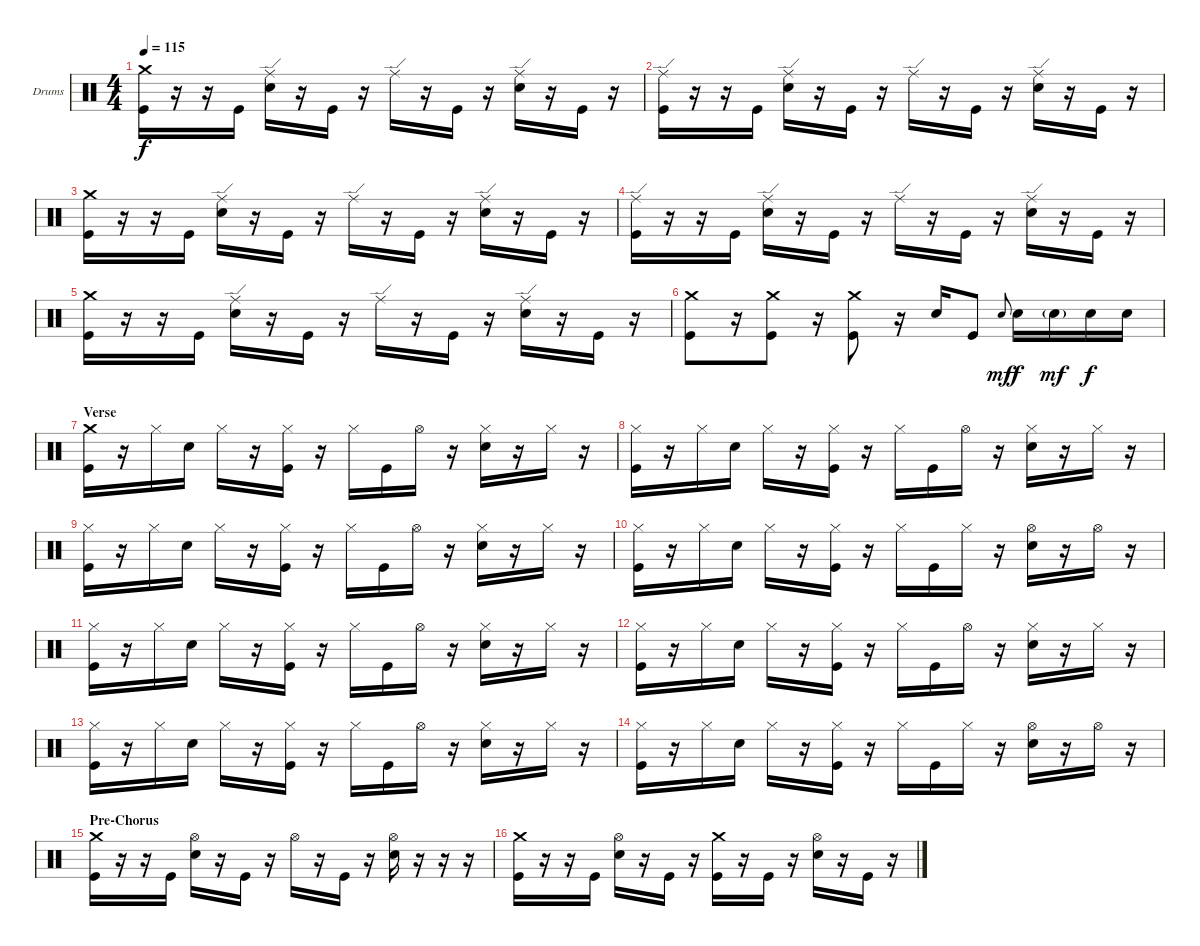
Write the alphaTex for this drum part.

\defaultSystemsLayout 4
\bracketExtendMode nobrackets
\firstSystemTrackNameOrientation horizontal
\otherSystemsTrackNameOrientation horizontal
\track ("Dave Krusen" "Drums") {instrument percussion}
\staff {score}
\articulation defaults
\ts (4 4)
\tempo 115
\clef neutral
\ks c
("Crash medium (hit)" "Kick (hit)").16{dy f} r.16 r.16 "Kick (hit)".16 ("Ride (edge)" "Snare (hit) 2").16 r.16 "Kick (hit)".16 r.16 "Ride (edge)".16 r.16 "Kick (hit)".16 r.16 ("Ride (edge)" "Snare (hit) 2").16 r.16 "Kick (hit)".16 r.16 |
("Ride (edge)" "Kick (hit)").16 r.16 r.16 "Kick (hit)".16 ("Ride (edge)" "Snare (hit) 2").16 r.16 "Kick (hit)".16 r.16 "Ride (edge)".16 r.16 "Kick (hit)".16 r.16 ("Ride (edge)" "Snare (hit) 2").16 r.16 "Kick (hit)".16 r.16 |
("Crash medium (hit)" "Kick (hit)").16 r.16 r.16 "Kick (hit)".16 ("Ride (edge)" "Snare (hit) 2").16 r.16 "Kick (hit)".16 r.16 "Ride (edge)".16 r.16 "Kick (hit)".16 r.16 ("Ride (edge)" "Snare (hit) 2").16 r.16 "Kick (hit)".16 r.16 |
("Ride (edge)" "Kick (hit)").16 r.16 r.16 "Kick (hit)".16 ("Ride (edge)" "Snare (hit) 2").16 r.16 "Kick (hit)".16 r.16 "Ride (edge)".16 r.16 "Kick (hit)".16 r.16 ("Ride (edge)" "Snare (hit) 2").16 r.16 "Kick (hit)".16 r.16 |
("Crash medium (hit)" "Kick (hit)").16 r.16 r.16 "Kick (hit)".16 ("Ride (edge)" "Snare (hit) 2").16 r.16 "Kick (hit)".16 r.16 "Ride (edge)".16 r.16 "Kick (hit)".16 r.16 ("Ride (edge)" "Snare (hit) 2").16 r.16 "Kick (hit)".16 r.16 |
("Crash medium (hit)" "Kick (hit)").8 r.16 ("Crash medium (hit)" "Kick (hit)").8 r.16 ("Crash medium (hit)" "Kick (hit)").8 r.16 "Snare (hit) 2".16 "Kick (hit)".8 "Snare (hit) 2".8{gr onbeat dy mf} "Snare (hit) 2".16{dy f} "Snare (hit) 2"{g}.16{dy mf} "Snare (hit) 2".16{dy f} "Snare (hit) 2".16 |
\section ("" "Verse")
("Crash medium (hit)" "Kick (hit)").16 r.16 "Hi-Hat (closed)".16 "Snare (hit) 2".16 "Hi-Hat (closed)".16 r.16 ("Hi-Hat (closed)" "Kick (hit)").16 r.16 "Hi-Hat (closed)".16 "Kick (hit)".16 "Hi-Hat (open)".16 r.16 ("Hi-Hat (closed)" "Snare (hit) 2").16 r.16 "Hi-Hat (closed)".16 r.16 |
("Hi-Hat (closed)" "Kick (hit)").16 r.16 "Hi-Hat (closed)".16 "Snare (hit) 2".16 "Hi-Hat (closed)".16 r.16 ("Hi-Hat (closed)" "Kick (hit)").16 r.16 "Hi-Hat (closed)".16 "Kick (hit)".16 "Hi-Hat (open)".16 r.16 ("Hi-Hat (closed)" "Snare (hit) 2").16 r.16 "Hi-Hat (closed)".16 r.16 |
("Hi-Hat (closed)" "Kick (hit)").16 r.16 "Hi-Hat (closed)".16 "Snare (hit) 2".16 "Hi-Hat (closed)".16 r.16 ("Hi-Hat (closed)" "Kick (hit)").16 r.16 "Hi-Hat (closed)".16 "Kick (hit)".16 "Hi-Hat (open)".16 r.16 ("Hi-Hat (closed)" "Snare (hit) 2").16 r.16 "Hi-Hat (closed)".16 r.16 |
("Hi-Hat (closed)" "Kick (hit)").16 r.16 "Hi-Hat (closed)".16 "Snare (hit) 2".16 "Hi-Hat (closed)".16 r.16 ("Hi-Hat (closed)" "Kick (hit)").16 r.16 "Hi-Hat (closed)".16 "Kick (hit)".16 "Hi-Hat (closed)".16 r.16 ("Hi-Hat (open)" "Snare (hit) 2").16 r.16 "Hi-Hat (open)".16 r.16 |
("Hi-Hat (closed)" "Kick (hit)").16 r.16 "Hi-Hat (closed)".16 "Snare (hit) 2".16 "Hi-Hat (closed)".16 r.16 ("Hi-Hat (closed)" "Kick (hit)").16 r.16 "Hi-Hat (closed)".16 "Kick (hit)".16 "Hi-Hat (open)".16 r.16 ("Hi-Hat (closed)" "Snare (hit) 2").16 r.16 "Hi-Hat (closed)".16 r.16 |
("Hi-Hat (closed)" "Kick (hit)").16 r.16 "Hi-Hat (closed)".16 "Snare (hit) 2".16 "Hi-Hat (closed)".16 r.16 ("Hi-Hat (closed)" "Kick (hit)").16 r.16 "Hi-Hat (closed)".16 "Kick (hit)".16 "Hi-Hat (open)".16 r.16 ("Hi-Hat (closed)" "Snare (hit) 2").16 r.16 "Hi-Hat (closed)".16 r.16 |
("Hi-Hat (closed)" "Kick (hit)").16 r.16 "Hi-Hat (closed)".16 "Snare (hit) 2".16 "Hi-Hat (closed)".16 r.16 ("Hi-Hat (closed)" "Kick (hit)").16 r.16 "Hi-Hat (closed)".16 "Kick (hit)".16 "Hi-Hat (open)".16 r.16 ("Hi-Hat (closed)" "Snare (hit) 2").16 r.16 "Hi-Hat (closed)".16 r.16 |
("Hi-Hat (closed)" "Kick (hit)").16 r.16 "Hi-Hat (closed)".16 "Snare (hit) 2".16 "Hi-Hat (closed)".16 r.16 ("Hi-Hat (closed)" "Kick (hit)").16 r.16 "Hi-Hat (closed)".16 "Kick (hit)".16 "Hi-Hat (closed)".16 r.16 ("Hi-Hat (open)" "Snare (hit) 2").16 r.16 "Hi-Hat (open)".16 r.16 |
\section ("" "Pre-Chorus")
("Crash medium (hit)" "Kick (hit)").16 r.16 r.16 "Kick (hit)".16 ("Hi-Hat (open)" "Snare (hit) 2").16 r.16 "Kick (hit)".16 r.16 "Hi-Hat (open)".16 r.16 "Kick (hit)".16 r.16 ("Hi-Hat (open)" "Snare (hit) 2").16 r.16 r.16 r.16 |
("Crash medium (hit)" "Kick (hit)").16 r.16 r.16 "Kick (hit)".16 ("Hi-Hat (open)" "Snare (hit) 2").16 r.16 "Kick (hit)".16 r.16 ("Crash medium (hit)" "Kick (hit)").16 r.16 "Kick (hit)".16 r.16 ("Hi-Hat (open)" "Snare (hit) 2").16 r.16 "Kick (hit)".16 r.16
